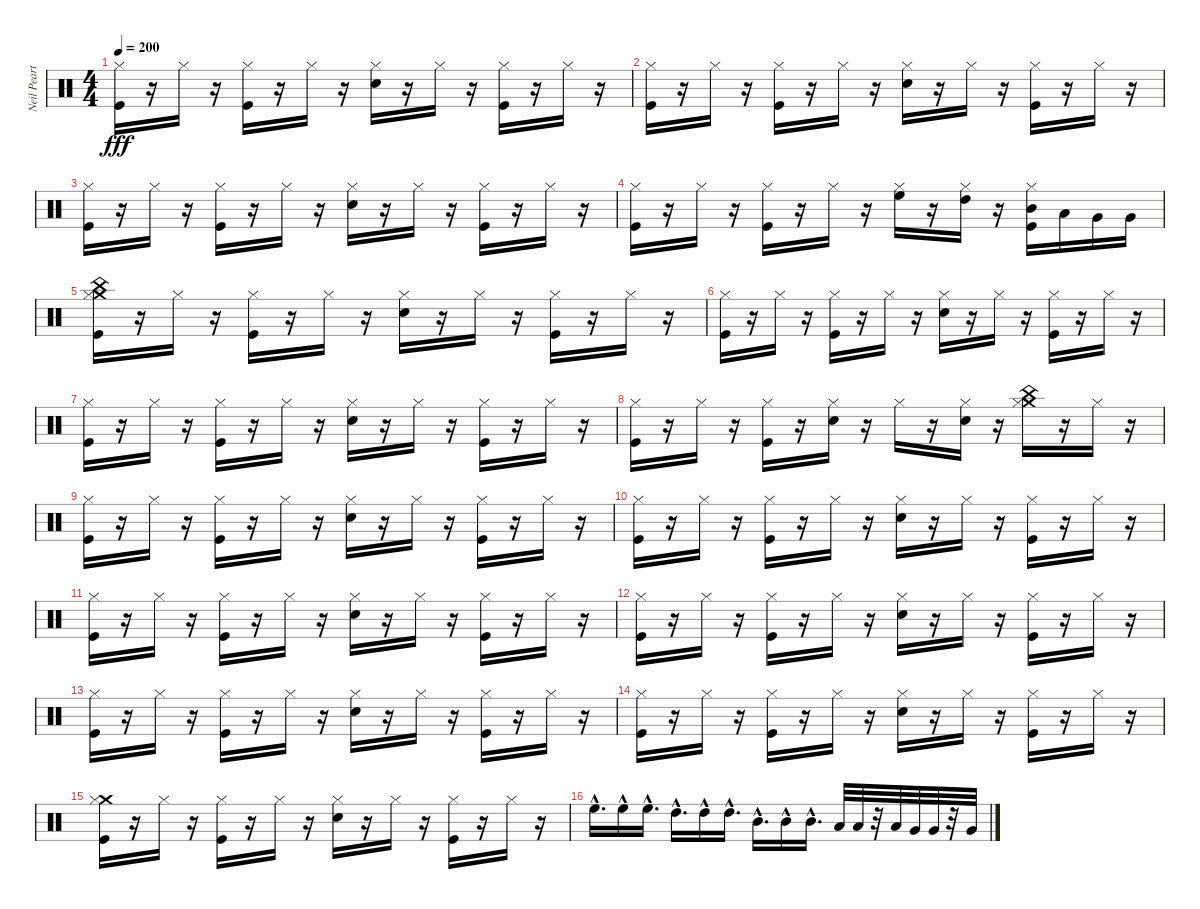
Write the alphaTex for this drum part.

\track ("Neil Peart" "Neil Peart") {instrument percussion}
\staff {score}
\articulation defaults
\ts (4 4)
\tempo 200
\clef neutral
\ks c
("Hi-Hat (closed)" "Kick (hit)").16{dy fff} r.16 "Hi-Hat (closed)".16 r.16 ("Hi-Hat (closed)" "Kick (hit)").16 r.16 "Hi-Hat (closed)".16 r.16 ("Hi-Hat (closed)" "Snare (hit) 2").16 r.16 "Hi-Hat (closed)".16 r.16 ("Hi-Hat (closed)" "Kick (hit)").16 r.16 "Hi-Hat (closed)".16 r.16 |
("Hi-Hat (closed)" "Kick (hit)").16 r.16 "Hi-Hat (closed)".16 r.16 ("Hi-Hat (closed)" "Kick (hit)").16 r.16 "Hi-Hat (closed)".16 r.16 ("Hi-Hat (closed)" "Snare (hit) 2").16 r.16 "Hi-Hat (closed)".16 r.16 ("Hi-Hat (closed)" "Kick (hit)").16 r.16 "Hi-Hat (closed)".16 r.16 |
("Hi-Hat (closed)" "Kick (hit)").16 r.16 "Hi-Hat (closed)".16 r.16 ("Hi-Hat (closed)" "Kick (hit)").16 r.16 "Hi-Hat (closed)".16 r.16 ("Hi-Hat (closed)" "Snare (hit) 2").16 r.16 "Hi-Hat (closed)".16 r.16 ("Hi-Hat (closed)" "Kick (hit)").16 r.16 "Hi-Hat (closed)".16 r.16 |
("Hi-Hat (closed)" "Kick (hit)").16 r.16 "Hi-Hat (closed)".16 r.16 ("Hi-Hat (closed)" "Kick (hit)").16 r.16 "Hi-Hat (closed)".16 r.16 ("High Floor Tom (hit)" "Hi-Hat (closed)").16 r.16 ("High Tom (hit)" "Hi-Hat (closed)").16 r.16 ("Mid Tom (hit)" "Hi-Hat (closed)" "Kick (hit)").16 "Low Tom (hit)".16 "Very Low Tom (hit)".16 "Very Low Tom (hit)".16 |
("Crash medium (hit)" "China (hit)" "Hi-Hat (closed)" "Kick (hit)").16 r.16 "Hi-Hat (closed)".16 r.16 ("Hi-Hat (closed)" "Kick (hit)").16 r.16 "Hi-Hat (closed)".16 r.16 ("Hi-Hat (closed)" "Snare (hit) 2").16 r.16 "Hi-Hat (closed)".16 r.16 ("Hi-Hat (closed)" "Kick (hit)").16 r.16 "Hi-Hat (closed)".16 r.16 |
("Hi-Hat (closed)" "Kick (hit)").16 r.16 "Hi-Hat (closed)".16 r.16 ("Hi-Hat (closed)" "Kick (hit)").16 r.16 "Hi-Hat (closed)".16 r.16 ("Hi-Hat (closed)" "Snare (hit) 2").16 r.16 "Hi-Hat (closed)".16 r.16 ("Hi-Hat (closed)" "Kick (hit)").16 r.16 "Hi-Hat (closed)".16 r.16 |
("Hi-Hat (closed)" "Kick (hit)").16 r.16 "Hi-Hat (closed)".16 r.16 ("Hi-Hat (closed)" "Kick (hit)").16 r.16 "Hi-Hat (closed)".16 r.16 ("Hi-Hat (closed)" "Snare (hit) 2").16 r.16 "Hi-Hat (closed)".16 r.16 ("Hi-Hat (closed)" "Kick (hit)").16 r.16 "Hi-Hat (closed)".16 r.16 |
("Hi-Hat (closed)" "Kick (hit)").16 r.16 "Hi-Hat (closed)".16 r.16 ("Hi-Hat (closed)" "Kick (hit)").16 r.16 ("Hi-Hat (closed)" "Electric Snare (hit)").16 r.16 "Hi-Hat (closed)".16 r.16 ("Hi-Hat (closed)" "Electric Snare (hit)").16 r.16 ("Crash medium (hit)" "China (hit)" "Hi-Hat (closed)").16 r.16 "Hi-Hat (closed)".16 r.16 |
("Hi-Hat (closed)" "Kick (hit)").16 r.16 "Hi-Hat (closed)".16 r.16 ("Hi-Hat (closed)" "Kick (hit)").16 r.16 "Hi-Hat (closed)".16 r.16 ("Hi-Hat (closed)" "Snare (hit) 2").16 r.16 "Hi-Hat (closed)".16 r.16 ("Hi-Hat (closed)" "Kick (hit)").16 r.16 "Hi-Hat (closed)".16 r.16 |
("Hi-Hat (closed)" "Kick (hit)").16 r.16 "Hi-Hat (closed)".16 r.16 ("Hi-Hat (closed)" "Kick (hit)").16 r.16 "Hi-Hat (closed)".16 r.16 ("Hi-Hat (closed)" "Snare (hit) 2").16 r.16 "Hi-Hat (closed)".16 r.16 ("Hi-Hat (closed)" "Kick (hit)").16 r.16 "Hi-Hat (closed)".16 r.16 |
("Hi-Hat (closed)" "Kick (hit)").16 r.16 "Hi-Hat (closed)".16 r.16 ("Hi-Hat (closed)" "Kick (hit)").16 r.16 "Hi-Hat (closed)".16 r.16 ("Hi-Hat (closed)" "Snare (hit) 2").16 r.16 "Hi-Hat (closed)".16 r.16 ("Hi-Hat (closed)" "Kick (hit)").16 r.16 "Hi-Hat (closed)".16 r.16 |
("Hi-Hat (closed)" "Kick (hit)").16 r.16 "Hi-Hat (closed)".16 r.16 ("Hi-Hat (closed)" "Kick (hit)").16 r.16 "Hi-Hat (closed)".16 r.16 ("Hi-Hat (closed)" "Snare (hit) 2").16 r.16 "Hi-Hat (closed)".16 r.16 ("Hi-Hat (closed)" "Kick (hit)").16 r.16 "Hi-Hat (closed)".16 r.16 |
("Hi-Hat (closed)" "Kick (hit)").16 r.16 "Hi-Hat (closed)".16 r.16 ("Hi-Hat (closed)" "Kick (hit)").16 r.16 "Hi-Hat (closed)".16 r.16 ("Hi-Hat (closed)" "Snare (hit) 2").16 r.16 "Hi-Hat (closed)".16 r.16 ("Hi-Hat (closed)" "Kick (hit)").16 r.16 "Hi-Hat (closed)".16 r.16 |
("Hi-Hat (closed)" "Kick (hit)").16 r.16 "Hi-Hat (closed)".16 r.16 ("Hi-Hat (closed)" "Kick (hit)").16 r.16 "Hi-Hat (closed)".16 r.16 ("Hi-Hat (closed)" "Snare (hit) 2").16 r.16 "Hi-Hat (closed)".16 r.16 ("Hi-Hat (closed)" "Kick (hit)").16 r.16 "Hi-Hat (closed)".16 r.16 |
("Crash medium (hit)" "Hi-Hat (closed)" "Kick (hit)").16 r.16 "Hi-Hat (closed)".16 r.16 ("Hi-Hat (closed)" "Kick (hit)").16 r.16 "Hi-Hat (closed)".16 r.16 ("Hi-Hat (closed)" "Snare (hit) 2").16 r.16 "Hi-Hat (closed)".16 r.16 ("Hi-Hat (closed)" "Kick (hit)").16 r.16 "Hi-Hat (closed)".16 r.16 |
"High Floor Tom (hit)"{hac}.16{d} "High Floor Tom (hit)"{hac}.16 "High Floor Tom (hit)"{hac}.16{d} "High Tom (hit)"{hac}.16{d} "High Tom (hit)"{hac}.16 "High Tom (hit)"{hac}.16{d} "Mid Tom (hit)"{hac}.16{d} "Mid Tom (hit)"{hac}.16 "Mid Tom (hit)"{hac}.16{d} "Low Tom (hit)".32 "Low Tom (hit)".32 r.32 "Low Tom (hit)".32 "Very Low Tom (hit)".32 "Very Low Tom (hit)".32 r.32 "Very Low Tom (hit)".32
